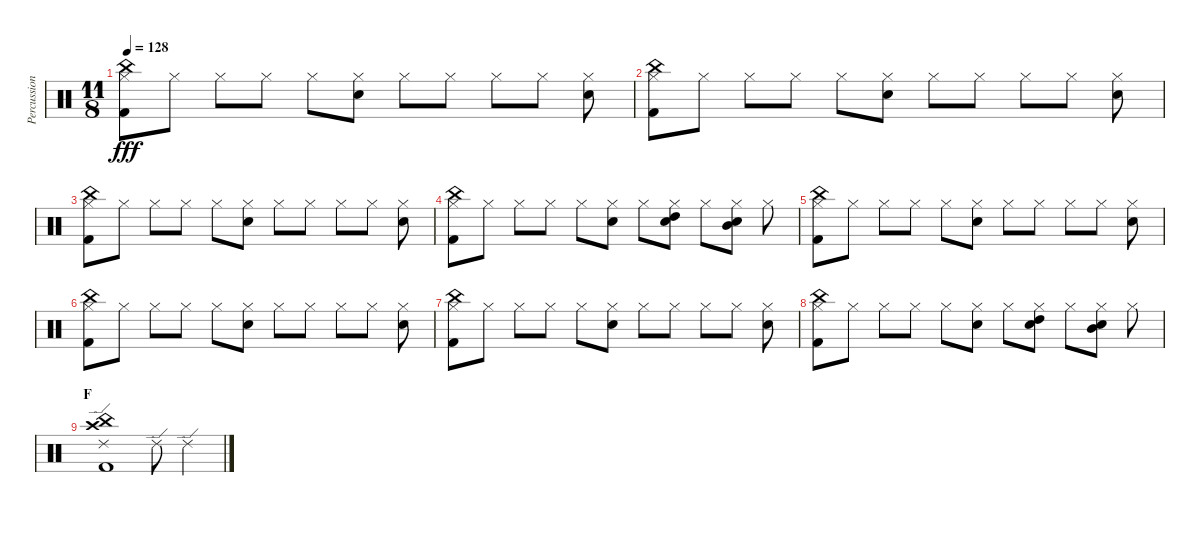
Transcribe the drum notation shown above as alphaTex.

\track ("Percussions" "Percussion") {instrument percussion}
\staff {score}
\articulation defaults
\ts (11 8)
\tempo 128
\clef neutral
\ks c
("Hi-Hat (closed)" "China (hit)" "Kick (hit) 2").8{dy fff} "Hi-Hat (closed)".8 "Hi-Hat (closed)".8 "Hi-Hat (closed)".8 "Hi-Hat (closed)".8 ("Hi-Hat (closed)" "Electric Snare (hit)").8 "Hi-Hat (closed)".8 "Hi-Hat (closed)".8 "Hi-Hat (closed)".8 "Hi-Hat (closed)".8 ("Hi-Hat (closed)" "Electric Snare (hit)").8 |
("Hi-Hat (closed)" "China (hit)" "Kick (hit) 2").8 "Hi-Hat (closed)".8 "Hi-Hat (closed)".8 "Hi-Hat (closed)".8 "Hi-Hat (closed)".8 ("Hi-Hat (closed)" "Electric Snare (hit)").8 "Hi-Hat (closed)".8 "Hi-Hat (closed)".8 "Hi-Hat (closed)".8 "Hi-Hat (closed)".8 ("Hi-Hat (closed)" "Electric Snare (hit)").8 |
("Hi-Hat (closed)" "China (hit)" "Kick (hit) 2").8 "Hi-Hat (closed)".8 "Hi-Hat (closed)".8 "Hi-Hat (closed)".8 "Hi-Hat (closed)".8 ("Hi-Hat (closed)" "Electric Snare (hit)").8 "Hi-Hat (closed)".8 "Hi-Hat (closed)".8 "Hi-Hat (closed)".8 "Hi-Hat (closed)".8 ("Hi-Hat (closed)" "Electric Snare (hit)").8 |
("Hi-Hat (closed)" "China (hit)" "Kick (hit) 2").8 "Hi-Hat (closed)".8 "Hi-Hat (closed)".8 "Hi-Hat (closed)".8 "Hi-Hat (closed)".8 ("Hi-Hat (closed)" "Electric Snare (hit)").8 "Hi-Hat (closed)".8 ("Hi-Hat (closed)" "High Tom (hit)" "Electric Snare (hit)").8 "Hi-Hat (closed)".8 ("Hi-Hat (closed)" "Mid Tom (hit)" "Electric Snare (hit)").8 "Hi-Hat (closed)".8 |
("Hi-Hat (closed)" "China (hit)" "Kick (hit) 2").8 "Hi-Hat (closed)".8 "Hi-Hat (closed)".8 "Hi-Hat (closed)".8 "Hi-Hat (closed)".8 ("Hi-Hat (closed)" "Electric Snare (hit)").8 "Hi-Hat (closed)".8 "Hi-Hat (closed)".8 "Hi-Hat (closed)".8 "Hi-Hat (closed)".8 ("Hi-Hat (closed)" "Electric Snare (hit)").8 |
("Hi-Hat (closed)" "China (hit)" "Kick (hit) 2").8 "Hi-Hat (closed)".8 "Hi-Hat (closed)".8 "Hi-Hat (closed)".8 "Hi-Hat (closed)".8 ("Hi-Hat (closed)" "Electric Snare (hit)").8 "Hi-Hat (closed)".8 "Hi-Hat (closed)".8 "Hi-Hat (closed)".8 "Hi-Hat (closed)".8 ("Hi-Hat (closed)" "Electric Snare (hit)").8 |
("Hi-Hat (closed)" "China (hit)" "Kick (hit) 2").8 "Hi-Hat (closed)".8 "Hi-Hat (closed)".8 "Hi-Hat (closed)".8 "Hi-Hat (closed)".8 ("Hi-Hat (closed)" "Electric Snare (hit)").8 "Hi-Hat (closed)".8 "Hi-Hat (closed)".8 "Hi-Hat (closed)".8 "Hi-Hat (closed)".8 ("Hi-Hat (closed)" "Electric Snare (hit)").8 |
("Hi-Hat (closed)" "China (hit)" "Kick (hit) 2").8 "Hi-Hat (closed)".8 "Hi-Hat (closed)".8 "Hi-Hat (closed)".8 "Hi-Hat (closed)".8 ("Hi-Hat (closed)" "Electric Snare (hit)").8 "Hi-Hat (closed)".8 ("Hi-Hat (closed)" "High Tom (hit)" "Electric Snare (hit)").8 "Hi-Hat (closed)".8 ("Hi-Hat (closed)" "Mid Tom (hit)" "Electric Snare (hit)").8 "Hi-Hat (closed)".8 |
\section ("" "F")
("Ride (edge) 2" "Crash high (hit)" "China (hit)" "Kick (hit) 2").1 "Ride (edge) 2".8 "Ride (edge) 2".4
